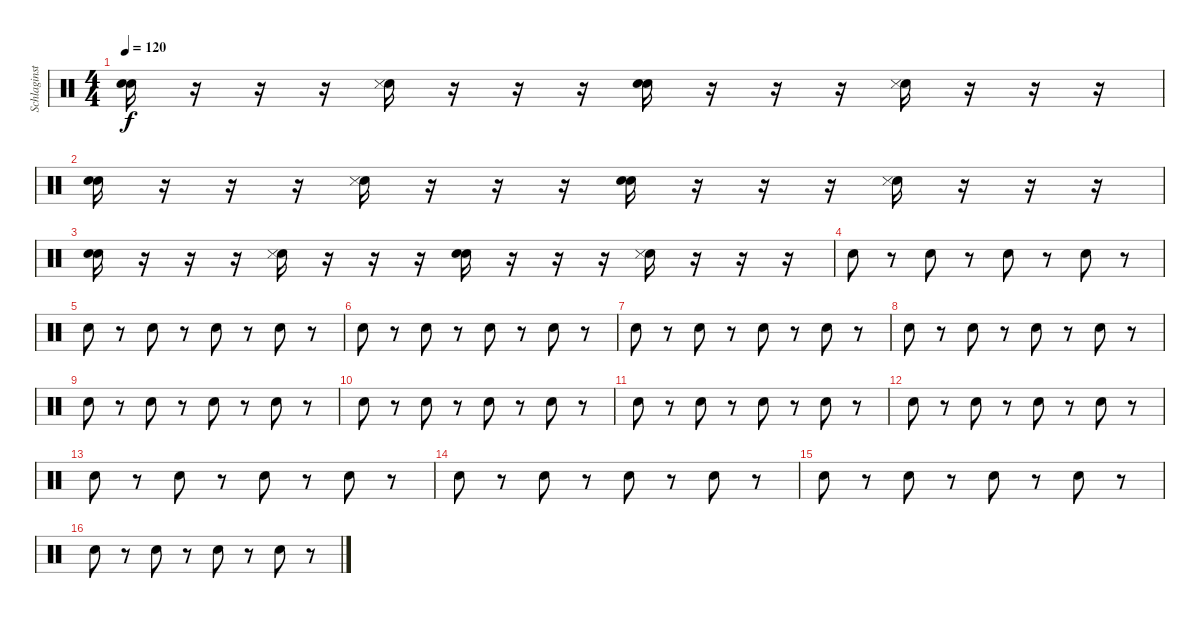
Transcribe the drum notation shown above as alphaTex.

\track ("Schlaginstrumente - Auswahl" "Schlaginst") {instrument percussion}
\staff {score}
\articulation defaults
\ts (4 4)
\tempo 120
\clef neutral
\ks c
("Snare (hit) 2" "Snare (hit) 2").16{dy f} r.16 r.16 r.16 ("Snare (hit) 2" "Snare (side stick) 3").16 r.16 r.16 r.16 ("Snare (hit) 2" "Snare (hit) 2").16 r.16 r.16 r.16 ("Snare (hit) 2" "Snare (side stick) 3").16 r.16 r.16 r.16 |
("Snare (hit) 2" "Snare (hit) 2").16 r.16 r.16 r.16 ("Snare (hit) 2" "Snare (side stick) 3").16 r.16 r.16 r.16 ("Snare (hit) 2" "Snare (hit) 2").16 r.16 r.16 r.16 ("Snare (hit) 2" "Snare (side stick) 3").16 r.16 r.16 r.16 |
("Snare (hit) 2" "Snare (hit) 2").16 r.16 r.16 r.16 ("Snare (hit) 2" "Snare (side stick) 3").16 r.16 r.16 r.16 ("Snare (hit) 2" "Snare (hit) 2").16 r.16 r.16 r.16 ("Snare (hit) 2" "Snare (side stick) 3").16 r.16 r.16 r.16 |
"Snare (hit) 2".8 r.8 "Snare (hit) 2".8 r.8 "Snare (hit) 2".8 r.8 "Snare (hit) 2".8 r.8 |
"Snare (hit) 2".8 r.8 "Snare (hit) 2".8 r.8 "Snare (hit) 2".8 r.8 "Snare (hit) 2".8 r.8 |
"Snare (hit) 2".8 r.8 "Snare (hit) 2".8 r.8 "Snare (hit) 2".8 r.8 "Snare (hit) 2".8 r.8 |
"Snare (hit) 2".8 r.8 "Snare (hit) 2".8 r.8 "Snare (hit) 2".8 r.8 "Snare (hit) 2".8 r.8 |
"Snare (hit) 2".8 r.8 "Snare (hit) 2".8 r.8 "Snare (hit) 2".8 r.8 "Snare (hit) 2".8 r.8 |
"Snare (hit) 2".8 r.8 "Snare (hit) 2".8 r.8 "Snare (hit) 2".8 r.8 "Snare (hit) 2".8 r.8 |
"Snare (hit) 2".8 r.8 "Snare (hit) 2".8 r.8 "Snare (hit) 2".8 r.8 "Snare (hit) 2".8 r.8 |
"Snare (hit) 2".8 r.8 "Snare (hit) 2".8 r.8 "Snare (hit) 2".8 r.8 "Snare (hit) 2".8 r.8 |
"Snare (hit) 2".8 r.8 "Snare (hit) 2".8 r.8 "Snare (hit) 2".8 r.8 "Snare (hit) 2".8 r.8 |
"Snare (hit) 2".8 r.8 "Snare (hit) 2".8 r.8 "Snare (hit) 2".8 r.8 "Snare (hit) 2".8 r.8 |
"Snare (hit) 2".8 r.8 "Snare (hit) 2".8 r.8 "Snare (hit) 2".8 r.8 "Snare (hit) 2".8 r.8 |
"Snare (hit) 2".8 r.8 "Snare (hit) 2".8 r.8 "Snare (hit) 2".8 r.8 "Snare (hit) 2".8 r.8 |
"Snare (hit) 2".8 r.8 "Snare (hit) 2".8 r.8 "Snare (hit) 2".8 r.8 "Snare (hit) 2".8 r.8
